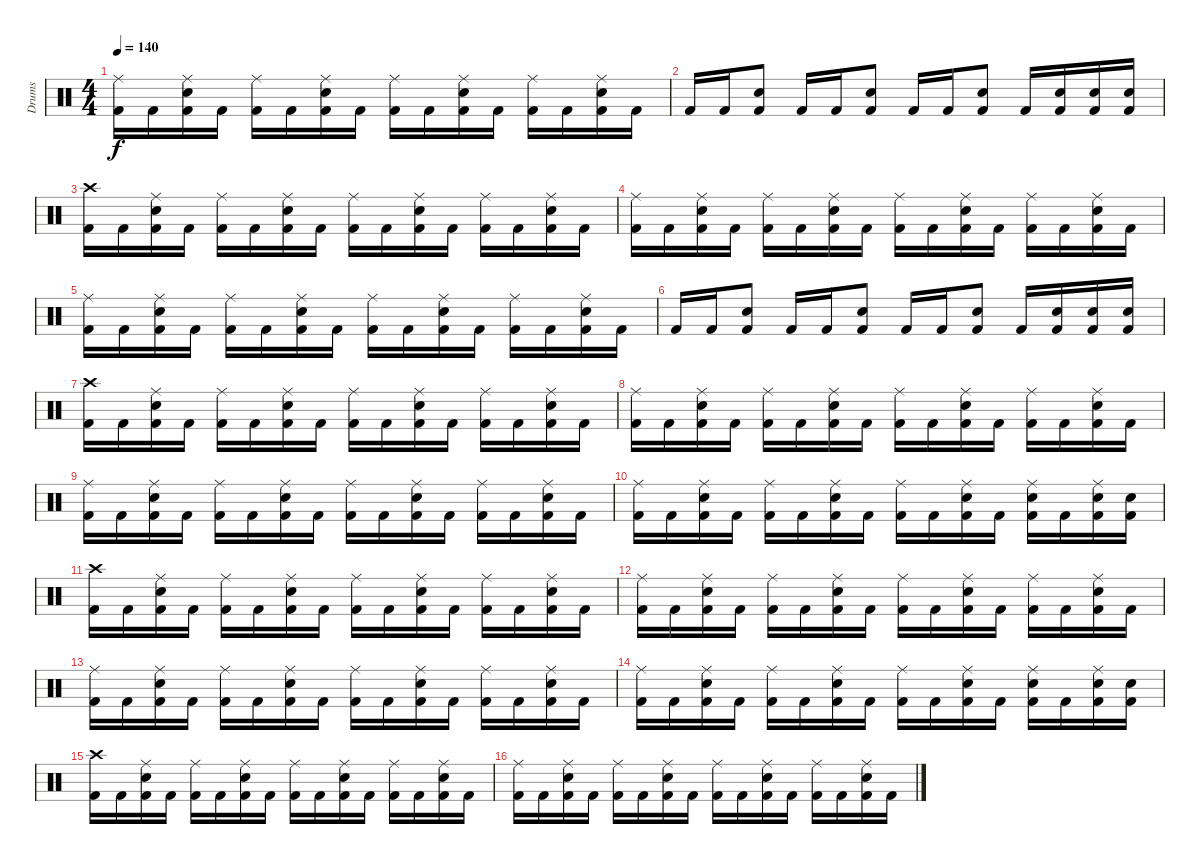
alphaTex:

\track ("Drums" "Drums") {instrument percussion}
\staff {score}
\articulation defaults
\ts (4 4)
\tempo 140
\clef neutral
\ks c
("Ride (middle)" "Kick (hit) 2").16{dy f} "Kick (hit) 2".16 ("Ride (middle)" "Electric Snare (hit)" "Kick (hit) 2").16 "Kick (hit) 2".16 ("Ride (middle)" "Kick (hit) 2").16 "Kick (hit) 2".16 ("Ride (middle)" "Electric Snare (hit)" "Kick (hit) 2").16 "Kick (hit) 2".16 ("Ride (middle)" "Kick (hit) 2").16 "Kick (hit) 2".16 ("Ride (middle)" "Electric Snare (hit)" "Kick (hit) 2").16 "Kick (hit) 2".16 ("Ride (middle)" "Kick (hit) 2").16 "Kick (hit) 2".16 ("Ride (middle)" "Electric Snare (hit)" "Kick (hit) 2").16 "Kick (hit) 2".16 |
"Kick (hit) 2".16 "Kick (hit) 2".16 ("Electric Snare (hit)" "Kick (hit) 2").8 "Kick (hit) 2".16 "Kick (hit) 2".16 ("Electric Snare (hit)" "Kick (hit) 2").8 "Kick (hit) 2".16 "Kick (hit) 2".16 ("Electric Snare (hit)" "Kick (hit) 2").8 "Kick (hit) 2".16 ("Electric Snare (hit)" "Kick (hit) 2").16 ("Electric Snare (hit)" "Kick (hit) 2").16 ("Electric Snare (hit)" "Kick (hit) 2").16 |
("Crash high (hit)" "Kick (hit) 2").16 "Kick (hit) 2".16 ("Ride (middle)" "Electric Snare (hit)" "Kick (hit) 2").16 "Kick (hit) 2".16 ("Ride (middle)" "Kick (hit) 2").16 "Kick (hit) 2".16 ("Ride (middle)" "Electric Snare (hit)" "Kick (hit) 2").16 "Kick (hit) 2".16 ("Ride (middle)" "Kick (hit) 2").16 "Kick (hit) 2".16 ("Ride (middle)" "Electric Snare (hit)" "Kick (hit) 2").16 "Kick (hit) 2".16 ("Ride (middle)" "Kick (hit) 2").16 "Kick (hit) 2".16 ("Ride (middle)" "Electric Snare (hit)" "Kick (hit) 2").16 "Kick (hit) 2".16 |
("Ride (middle)" "Kick (hit) 2").16 "Kick (hit) 2".16 ("Ride (middle)" "Electric Snare (hit)" "Kick (hit) 2").16 "Kick (hit) 2".16 ("Ride (middle)" "Kick (hit) 2").16 "Kick (hit) 2".16 ("Ride (middle)" "Electric Snare (hit)" "Kick (hit) 2").16 "Kick (hit) 2".16 ("Ride (middle)" "Kick (hit) 2").16 "Kick (hit) 2".16 ("Ride (middle)" "Electric Snare (hit)" "Kick (hit) 2").16 "Kick (hit) 2".16 ("Ride (middle)" "Kick (hit) 2").16 "Kick (hit) 2".16 ("Ride (middle)" "Electric Snare (hit)" "Kick (hit) 2").16 "Kick (hit) 2".16 |
("Ride (middle)" "Kick (hit) 2").16 "Kick (hit) 2".16 ("Ride (middle)" "Electric Snare (hit)" "Kick (hit) 2").16 "Kick (hit) 2".16 ("Ride (middle)" "Kick (hit) 2").16 "Kick (hit) 2".16 ("Ride (middle)" "Electric Snare (hit)" "Kick (hit) 2").16 "Kick (hit) 2".16 ("Ride (middle)" "Kick (hit) 2").16 "Kick (hit) 2".16 ("Ride (middle)" "Electric Snare (hit)" "Kick (hit) 2").16 "Kick (hit) 2".16 ("Ride (middle)" "Kick (hit) 2").16 "Kick (hit) 2".16 ("Ride (middle)" "Electric Snare (hit)" "Kick (hit) 2").16 "Kick (hit) 2".16 |
"Kick (hit) 2".16 "Kick (hit) 2".16 ("Electric Snare (hit)" "Kick (hit) 2").8 "Kick (hit) 2".16 "Kick (hit) 2".16 ("Electric Snare (hit)" "Kick (hit) 2").8 "Kick (hit) 2".16 "Kick (hit) 2".16 ("Electric Snare (hit)" "Kick (hit) 2").8 "Kick (hit) 2".16 ("Electric Snare (hit)" "Kick (hit) 2").16 ("Electric Snare (hit)" "Kick (hit) 2").16 ("Electric Snare (hit)" "Kick (hit) 2").16 |
("Crash high (hit)" "Kick (hit) 2").16 "Kick (hit) 2".16 ("Ride (middle)" "Electric Snare (hit)" "Kick (hit) 2").16 "Kick (hit) 2".16 ("Ride (middle)" "Kick (hit) 2").16 "Kick (hit) 2".16 ("Ride (middle)" "Electric Snare (hit)" "Kick (hit) 2").16 "Kick (hit) 2".16 ("Ride (middle)" "Kick (hit) 2").16 "Kick (hit) 2".16 ("Ride (middle)" "Electric Snare (hit)" "Kick (hit) 2").16 "Kick (hit) 2".16 ("Ride (middle)" "Kick (hit) 2").16 "Kick (hit) 2".16 ("Ride (middle)" "Electric Snare (hit)" "Kick (hit) 2").16 "Kick (hit) 2".16 |
("Ride (middle)" "Kick (hit) 2").16 "Kick (hit) 2".16 ("Ride (middle)" "Electric Snare (hit)" "Kick (hit) 2").16 "Kick (hit) 2".16 ("Ride (middle)" "Kick (hit) 2").16 "Kick (hit) 2".16 ("Ride (middle)" "Electric Snare (hit)" "Kick (hit) 2").16 "Kick (hit) 2".16 ("Ride (middle)" "Kick (hit) 2").16 "Kick (hit) 2".16 ("Ride (middle)" "Electric Snare (hit)" "Kick (hit) 2").16 "Kick (hit) 2".16 ("Ride (middle)" "Kick (hit) 2").16 "Kick (hit) 2".16 ("Ride (middle)" "Electric Snare (hit)" "Kick (hit) 2").16 "Kick (hit) 2".16 |
("Ride (middle)" "Kick (hit) 2").16 "Kick (hit) 2".16 ("Ride (middle)" "Electric Snare (hit)" "Kick (hit) 2").16 "Kick (hit) 2".16 ("Ride (middle)" "Kick (hit) 2").16 "Kick (hit) 2".16 ("Ride (middle)" "Electric Snare (hit)" "Kick (hit) 2").16 "Kick (hit) 2".16 ("Ride (middle)" "Kick (hit) 2").16 "Kick (hit) 2".16 ("Ride (middle)" "Electric Snare (hit)" "Kick (hit) 2").16 "Kick (hit) 2".16 ("Ride (middle)" "Kick (hit) 2").16 "Kick (hit) 2".16 ("Ride (middle)" "Electric Snare (hit)" "Kick (hit) 2").16 "Kick (hit) 2".16 |
("Ride (middle)" "Kick (hit) 2").16 "Kick (hit) 2".16 ("Ride (middle)" "Electric Snare (hit)" "Kick (hit) 2").16 "Kick (hit) 2".16 ("Ride (middle)" "Kick (hit) 2").16 "Kick (hit) 2".16 ("Ride (middle)" "Electric Snare (hit)" "Kick (hit) 2").16 "Kick (hit) 2".16 ("Ride (middle)" "Kick (hit) 2").16 "Kick (hit) 2".16 ("Ride (middle)" "Electric Snare (hit)" "Kick (hit) 2").16 "Kick (hit) 2".16 ("Ride (middle)" "Electric Snare (hit)" "Kick (hit) 2").16 "Kick (hit) 2".16 ("Ride (middle)" "Electric Snare (hit)" "Kick (hit) 2").16 ("Electric Snare (hit)" "Kick (hit) 2").16 |
("Crash high (hit)" "Kick (hit) 2").16 "Kick (hit) 2".16 ("Ride (middle)" "Electric Snare (hit)" "Kick (hit) 2").16 "Kick (hit) 2".16 ("Ride (middle)" "Kick (hit) 2").16 "Kick (hit) 2".16 ("Ride (middle)" "Electric Snare (hit)" "Kick (hit) 2").16 "Kick (hit) 2".16 ("Ride (middle)" "Kick (hit) 2").16 "Kick (hit) 2".16 ("Ride (middle)" "Electric Snare (hit)" "Kick (hit) 2").16 "Kick (hit) 2".16 ("Ride (middle)" "Kick (hit) 2").16 "Kick (hit) 2".16 ("Ride (middle)" "Electric Snare (hit)" "Kick (hit) 2").16 "Kick (hit) 2".16 |
("Ride (middle)" "Kick (hit) 2").16 "Kick (hit) 2".16 ("Ride (middle)" "Electric Snare (hit)" "Kick (hit) 2").16 "Kick (hit) 2".16 ("Ride (middle)" "Kick (hit) 2").16 "Kick (hit) 2".16 ("Ride (middle)" "Electric Snare (hit)" "Kick (hit) 2").16 "Kick (hit) 2".16 ("Ride (middle)" "Kick (hit) 2").16 "Kick (hit) 2".16 ("Ride (middle)" "Electric Snare (hit)" "Kick (hit) 2").16 "Kick (hit) 2".16 ("Ride (middle)" "Kick (hit) 2").16 "Kick (hit) 2".16 ("Ride (middle)" "Electric Snare (hit)" "Kick (hit) 2").16 "Kick (hit) 2".16 |
("Ride (middle)" "Kick (hit) 2").16 "Kick (hit) 2".16 ("Ride (middle)" "Electric Snare (hit)" "Kick (hit) 2").16 "Kick (hit) 2".16 ("Ride (middle)" "Kick (hit) 2").16 "Kick (hit) 2".16 ("Ride (middle)" "Electric Snare (hit)" "Kick (hit) 2").16 "Kick (hit) 2".16 ("Ride (middle)" "Kick (hit) 2").16 "Kick (hit) 2".16 ("Ride (middle)" "Electric Snare (hit)" "Kick (hit) 2").16 "Kick (hit) 2".16 ("Ride (middle)" "Kick (hit) 2").16 "Kick (hit) 2".16 ("Ride (middle)" "Electric Snare (hit)" "Kick (hit) 2").16 "Kick (hit) 2".16 |
("Ride (middle)" "Kick (hit) 2").16 "Kick (hit) 2".16 ("Ride (middle)" "Electric Snare (hit)" "Kick (hit) 2").16 "Kick (hit) 2".16 ("Ride (middle)" "Kick (hit) 2").16 "Kick (hit) 2".16 ("Ride (middle)" "Electric Snare (hit)" "Kick (hit) 2").16 "Kick (hit) 2".16 ("Ride (middle)" "Kick (hit) 2").16 "Kick (hit) 2".16 ("Ride (middle)" "Electric Snare (hit)" "Kick (hit) 2").16 "Kick (hit) 2".16 ("Ride (middle)" "Electric Snare (hit)" "Kick (hit) 2").16 "Kick (hit) 2".16 ("Ride (middle)" "Electric Snare (hit)" "Kick (hit) 2").16 ("Electric Snare (hit)" "Kick (hit) 2").16 |
("Crash high (hit)" "Kick (hit) 2").16 "Kick (hit) 2".16 ("Ride (middle)" "Electric Snare (hit)" "Kick (hit) 2").16 "Kick (hit) 2".16 ("Ride (middle)" "Kick (hit) 2").16 "Kick (hit) 2".16 ("Ride (middle)" "Electric Snare (hit)" "Kick (hit) 2").16 "Kick (hit) 2".16 ("Ride (middle)" "Kick (hit) 2").16 "Kick (hit) 2".16 ("Ride (middle)" "Electric Snare (hit)" "Kick (hit) 2").16 "Kick (hit) 2".16 ("Ride (middle)" "Kick (hit) 2").16 "Kick (hit) 2".16 ("Ride (middle)" "Electric Snare (hit)" "Kick (hit) 2").16 "Kick (hit) 2".16 |
("Ride (middle)" "Kick (hit) 2").16 "Kick (hit) 2".16 ("Ride (middle)" "Electric Snare (hit)" "Kick (hit) 2").16 "Kick (hit) 2".16 ("Ride (middle)" "Kick (hit) 2").16 "Kick (hit) 2".16 ("Ride (middle)" "Electric Snare (hit)" "Kick (hit) 2").16 "Kick (hit) 2".16 ("Ride (middle)" "Kick (hit) 2").16 "Kick (hit) 2".16 ("Ride (middle)" "Electric Snare (hit)" "Kick (hit) 2").16 "Kick (hit) 2".16 ("Ride (middle)" "Kick (hit) 2").16 "Kick (hit) 2".16 ("Ride (middle)" "Electric Snare (hit)" "Kick (hit) 2").16 "Kick (hit) 2".16
